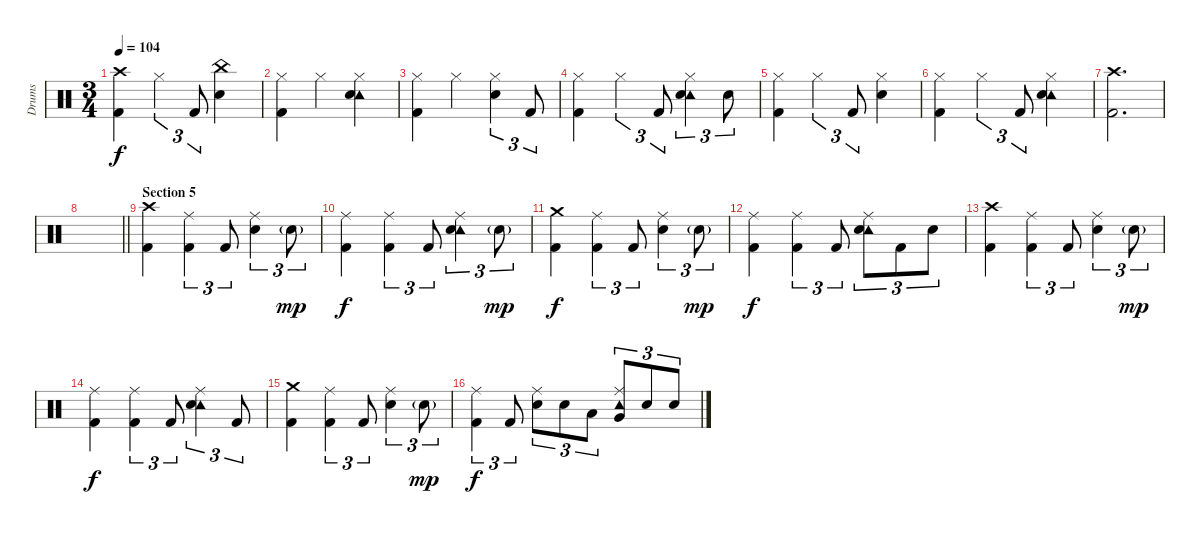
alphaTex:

\track ("Drums" "Drums") {instrument percussion}
\staff {score}
\articulation defaults
\ts (3 4)
\tempo 104
\clef neutral
\ks c
("Crash high (hit)" "Kick (hit) 2").4{dy f} "Hi-Hat (closed)".4{tu (3 2)} "Kick (hit) 2".8{tu (3 2)} ("China (hit)" "Snare (hit) 2").4 |
("Hi-Hat (closed)" "Kick (hit) 2").4 "Hi-Hat (closed)".4 ("Hi-Hat (closed)" "Tambourine (hit)" "Snare (hit) 2").4 |
("Hi-Hat (closed)" "Kick (hit) 2").4 "Hi-Hat (closed)".4 ("Hi-Hat (closed)" "Snare (hit) 2").4{tu (3 2)} "Kick (hit) 2".8{tu (3 2)} |
("Hi-Hat (closed)" "Kick (hit) 2").4 "Hi-Hat (closed)".4{tu (3 2)} "Kick (hit) 2".8{tu (3 2)} ("Hi-Hat (closed)" "Tambourine (hit)" "Snare (hit) 2").4{tu (3 2)} "Snare (hit) 2".8{tu (3 2)} |
("Hi-Hat (closed)" "Kick (hit) 2").4 "Hi-Hat (closed)".4{tu (3 2)} "Kick (hit) 2".8{tu (3 2)} ("Hi-Hat (closed)" "Snare (hit) 2").4 |
("Hi-Hat (closed)" "Kick (hit) 2").4 "Hi-Hat (closed)".4{tu (3 2)} "Kick (hit) 2".8{tu (3 2)} ("Hi-Hat (closed)" "Tambourine (hit)" "Snare (hit) 2").4 |
("Crash high (hit)" "Kick (hit) 2").2{d} |
\barLineRight lightlight
|
\section ("" "Section 5")
("Crash high (hit)" "Kick (hit) 2").4 ("Ride (middle)" "Kick (hit) 2").4{tu (3 2)} "Kick (hit) 2".8{tu (3 2)} ("Ride (middle)" "Snare (hit) 2").4{tu (3 2)} "Snare (hit) 2"{g}.8{tu (3 2) dy mp} |
("Ride (middle)" "Kick (hit) 2").4{dy f} ("Ride (middle)" "Kick (hit) 2").4{tu (3 2)} "Kick (hit) 2".8{tu (3 2)} ("Ride (middle)" "Tambourine (hit)" "Snare (hit) 2").4{tu (3 2)} "Snare (hit) 2"{g}.8{tu (3 2) dy mp} |
("Crash medium (hit)" "Kick (hit) 2").4{dy f} ("Ride (middle)" "Kick (hit) 2").4{tu (3 2)} "Kick (hit) 2".8{tu (3 2)} ("Ride (middle)" "Snare (hit) 2").4{tu (3 2)} "Snare (hit) 2"{g}.8{tu (3 2) dy mp} |
("Ride (middle)" "Kick (hit) 2").4{dy f} ("Ride (middle)" "Kick (hit) 2").4{tu (3 2)} "Kick (hit) 2".8{tu (3 2)} ("Ride (middle)" "Tambourine (hit)" "Snare (hit) 2").8{tu (3 2)} "Kick (hit) 2".8{tu (3 2)} "Snare (hit) 2".8{tu (3 2)} |
("Crash high (hit)" "Kick (hit) 2").4 ("Ride (middle)" "Kick (hit) 2").4{tu (3 2)} "Kick (hit) 2".8{tu (3 2)} ("Ride (middle)" "Snare (hit) 2").4{tu (3 2)} "Snare (hit) 2"{g}.8{tu (3 2) dy mp} |
("Ride (middle)" "Kick (hit) 2").4{dy f} ("Ride (middle)" "Kick (hit) 2").4{tu (3 2)} "Kick (hit) 2".8{tu (3 2)} ("Ride (middle)" "Tambourine (hit)" "Snare (hit) 2").4{tu (3 2)} "Kick (hit) 2".8{tu (3 2)} |
("Crash medium (hit)" "Kick (hit) 2").4 ("Ride (middle)" "Kick (hit) 2").4{tu (3 2)} "Kick (hit) 2".8{tu (3 2)} ("Ride (middle)" "Snare (hit) 2").4{tu (3 2)} "Snare (hit) 2"{g}.8{tu (3 2) dy mp} |
("Ride (middle)" "Kick (hit) 2").4{tu (3 2) dy f} "Kick (hit) 2".8{tu (3 2)} ("Ride (middle)" "Snare (hit) 2").8{tu (3 2)} "Snare (hit) 2".8{tu (3 2)} "Low Tom (hit)".8{tu (3 2)} ("Ride (middle)" "Tambourine (hit)" "Very Low Tom (hit)").8{tu (3 2)} "Snare (hit) 2".8{tu (3 2)} "Snare (hit) 2".8{tu (3 2)}
